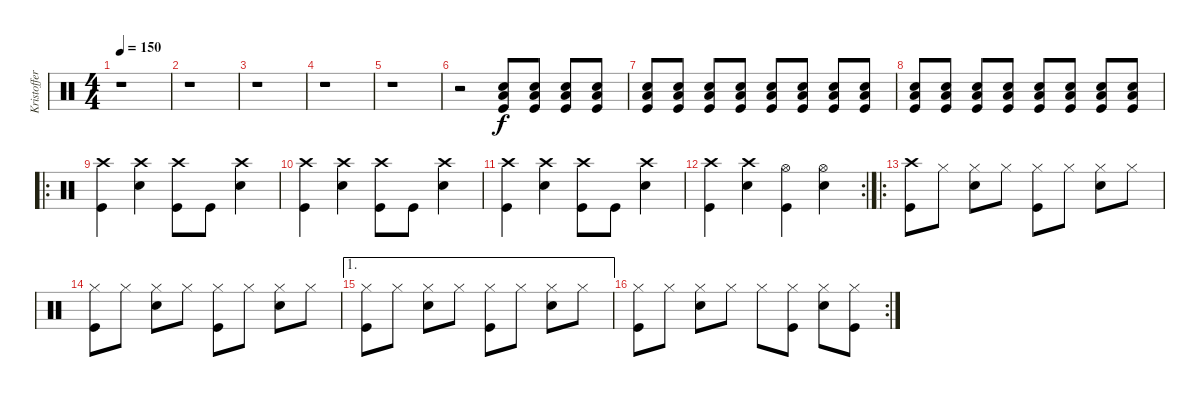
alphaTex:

\track ("Kristoffer Söderström - Drums" "Kristoffer") {instrument percussion}
\staff {score}
\articulation defaults
\ts (4 4)
\tempo 150
\clef neutral
\ks c
r.1{dy f volume 0} |
r.1 |
r.1 |
r.1 |
r.1 |
r.2 ("Snare (hit) 2" "Low Tom (hit)" "Kick (hit)").8{volume 13} ("Snare (hit) 2" "Low Tom (hit)" "Kick (hit)").8 ("Snare (hit) 2" "Low Tom (hit)" "Kick (hit)").8 ("Snare (hit) 2" "Low Tom (hit)" "Kick (hit)").8 |
("Snare (hit) 2" "Low Tom (hit)" "Kick (hit)").8 ("Snare (hit) 2" "Low Tom (hit)" "Kick (hit)").8 ("Snare (hit) 2" "Low Tom (hit)" "Kick (hit)").8 ("Snare (hit) 2" "Low Tom (hit)" "Kick (hit)").8 ("Snare (hit) 2" "Low Tom (hit)" "Kick (hit)").8 ("Snare (hit) 2" "Low Tom (hit)" "Kick (hit)").8 ("Snare (hit) 2" "Low Tom (hit)" "Kick (hit)").8 ("Snare (hit) 2" "Low Tom (hit)" "Kick (hit)").8 |
("Snare (hit) 2" "Low Tom (hit)" "Kick (hit)").8 ("Snare (hit) 2" "Low Tom (hit)" "Kick (hit)").8 ("Snare (hit) 2" "Low Tom (hit)" "Kick (hit)").8 ("Snare (hit) 2" "Low Tom (hit)" "Kick (hit)").8 ("Snare (hit) 2" "Low Tom (hit)" "Kick (hit)").8 ("Snare (hit) 2" "Low Tom (hit)" "Kick (hit)").8 ("Snare (hit) 2" "Low Tom (hit)" "Kick (hit)").8 ("Snare (hit) 2" "Low Tom (hit)" "Kick (hit)").8 |
\ro
("Crash high (hit)" "Kick (hit)").4 ("Crash high (hit)" "Snare (hit) 2").4 ("Crash high (hit)" "Kick (hit)").8 "Kick (hit)".8 ("Crash high (hit)" "Snare (hit) 2").4 |
("Crash high (hit)" "Kick (hit)").4 ("Crash high (hit)" "Snare (hit) 2").4 ("Crash high (hit)" "Kick (hit)").8 "Kick (hit)".8 ("Crash high (hit)" "Snare (hit) 2").4 |
("Crash high (hit)" "Kick (hit)").4 ("Crash high (hit)" "Snare (hit) 2").4 ("Crash high (hit)" "Kick (hit)").8 "Kick (hit)".8 ("Crash high (hit)" "Snare (hit) 2").4 |
\rc 2
("Crash high (hit)" "Kick (hit)").4 ("Crash high (hit)" "Snare (hit) 2").4 ("Hi-Hat (open)" "Kick (hit)").4 ("Hi-Hat (open)" "Snare (hit) 2").4 |
\ro
("Crash high (hit)" "Kick (hit)").8 "Hi-Hat (closed)".8 ("Hi-Hat (closed)" "Snare (hit) 2").8 "Hi-Hat (closed)".8 ("Hi-Hat (closed)" "Kick (hit)").8 "Hi-Hat (closed)".8 ("Hi-Hat (closed)" "Snare (hit) 2").8 "Hi-Hat (closed)".8 |
("Hi-Hat (closed)" "Kick (hit)").8 "Hi-Hat (closed)".8 ("Hi-Hat (closed)" "Snare (hit) 2").8 "Hi-Hat (closed)".8 ("Hi-Hat (closed)" "Kick (hit)").8 "Hi-Hat (closed)".8 ("Hi-Hat (closed)" "Snare (hit) 2").8 "Hi-Hat (closed)".8 |
\ae 1
("Hi-Hat (closed)" "Kick (hit)").8 "Hi-Hat (closed)".8 ("Hi-Hat (closed)" "Snare (hit) 2").8 "Hi-Hat (closed)".8 ("Hi-Hat (closed)" "Kick (hit)").8 "Hi-Hat (closed)".8 ("Hi-Hat (closed)" "Snare (hit) 2").8 "Hi-Hat (closed)".8 |
\rc 2
("Hi-Hat (closed)" "Kick (hit)").8 "Hi-Hat (closed)".8 ("Hi-Hat (closed)" "Snare (hit) 2").8 "Hi-Hat (closed)".8 "Hi-Hat (closed)".8 ("Hi-Hat (closed)" "Kick (hit)").8 ("Hi-Hat (closed)" "Snare (hit) 2").8 ("Hi-Hat (closed)" "Kick (hit)").8
